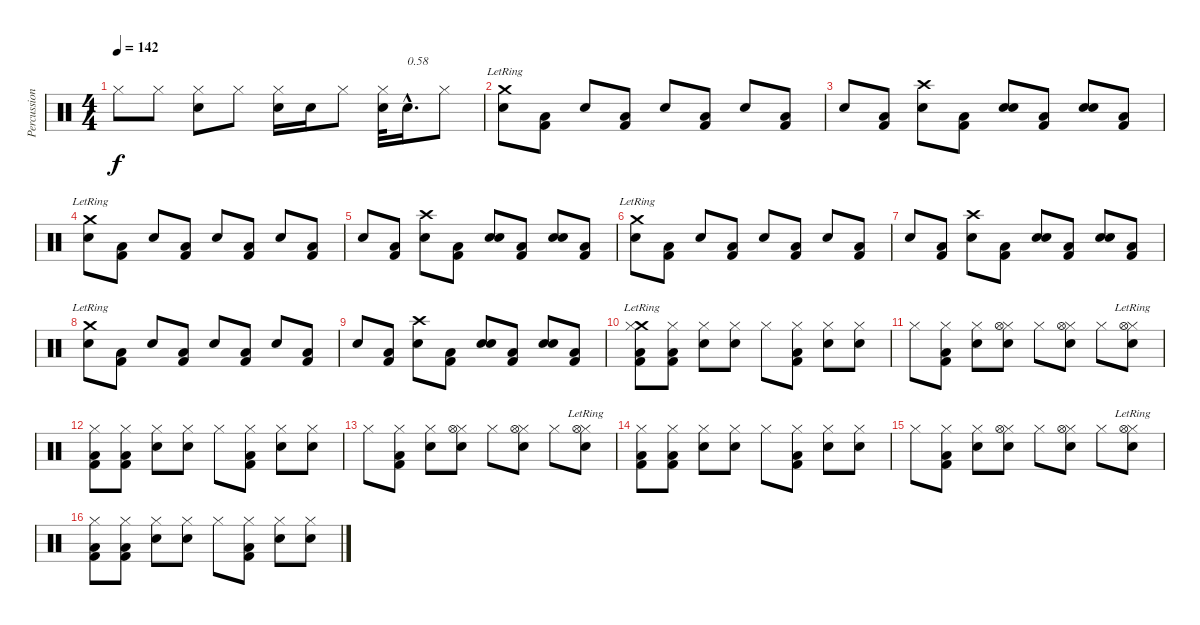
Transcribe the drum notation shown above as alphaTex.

\track ("Percussions" "Percussion") {instrument percussion}
\staff {score}
\articulation defaults
\ts (4 4)
\tempo 142
\clef neutral
\ks c "Hi-Hat (closed)".8{dy f} "Hi-Hat (closed)".8
("Electric Snare (hit)" "Hi-Hat (closed)").8 "Hi-Hat (closed)".8 ("Electric Snare (hit)" "Hi-Hat (closed)").16 "Electric Snare (hit)".16 "Hi-Hat (closed)".8 ("Electric Snare (hit)" "Hi-Hat (closed)").32 "Electric Snare (hit)"{hac}.16{d txt "0.58"} "Hi-Hat (closed)".8 |
("Electric Snare (hit)" "Crash medium (hit)"{lr}).8 ("Kick (hit) 2" "Low Floor Tom (hit)").8 "Electric Snare (hit)".8 ("Kick (hit) 2" "Low Floor Tom (hit)").8 "Electric Snare (hit)".8 ("Kick (hit) 2" "Low Floor Tom (hit)").8 "Electric Snare (hit)".8 ("Kick (hit) 2" "Low Floor Tom (hit)").8 |
"Electric Snare (hit)".8 ("Kick (hit) 2" "Low Floor Tom (hit)").8 ("Electric Snare (hit)" "Crash high (hit)").8 ("Kick (hit) 2" "Low Floor Tom (hit)").8 ("Electric Snare (hit)" "Snare (hit) 2").8 ("Kick (hit) 2" "Low Floor Tom (hit)").8 ("Electric Snare (hit)" "Snare (hit) 2").8 ("Kick (hit) 2" "Low Floor Tom (hit)").8 |
("Electric Snare (hit)" "Crash medium (hit)"{lr}).8 ("Kick (hit) 2" "Low Floor Tom (hit)").8 "Electric Snare (hit)".8 ("Kick (hit) 2" "Low Floor Tom (hit)").8 "Electric Snare (hit)".8 ("Kick (hit) 2" "Low Floor Tom (hit)").8 "Electric Snare (hit)".8 ("Kick (hit) 2" "Low Floor Tom (hit)").8 |
"Electric Snare (hit)".8 ("Kick (hit) 2" "Low Floor Tom (hit)").8 ("Electric Snare (hit)" "Crash high (hit)").8 ("Kick (hit) 2" "Low Floor Tom (hit)").8 ("Electric Snare (hit)" "Snare (hit) 2").8 ("Kick (hit) 2" "Low Floor Tom (hit)").8 ("Electric Snare (hit)" "Snare (hit) 2").8 ("Kick (hit) 2" "Low Floor Tom (hit)").8 |
("Electric Snare (hit)" "Crash medium (hit)"{lr}).8 ("Kick (hit) 2" "Low Floor Tom (hit)").8 "Electric Snare (hit)".8 ("Kick (hit) 2" "Low Floor Tom (hit)").8 "Electric Snare (hit)".8 ("Kick (hit) 2" "Low Floor Tom (hit)").8 "Electric Snare (hit)".8 ("Kick (hit) 2" "Low Floor Tom (hit)").8 |
"Electric Snare (hit)".8 ("Kick (hit) 2" "Low Floor Tom (hit)").8 ("Electric Snare (hit)" "Crash high (hit)").8 ("Kick (hit) 2" "Low Floor Tom (hit)").8 ("Electric Snare (hit)" "Snare (hit) 2").8 ("Kick (hit) 2" "Low Floor Tom (hit)").8 ("Electric Snare (hit)" "Snare (hit) 2").8 ("Kick (hit) 2" "Low Floor Tom (hit)").8 |
("Electric Snare (hit)" "Crash medium (hit)"{lr}).8 ("Kick (hit) 2" "Low Floor Tom (hit)").8 "Electric Snare (hit)".8 ("Kick (hit) 2" "Low Floor Tom (hit)").8 "Electric Snare (hit)".8 ("Kick (hit) 2" "Low Floor Tom (hit)").8 "Electric Snare (hit)".8 ("Kick (hit) 2" "Low Floor Tom (hit)").8 |
"Electric Snare (hit)".8 ("Kick (hit) 2" "Low Floor Tom (hit)").8 ("Electric Snare (hit)" "Crash high (hit)").8 ("Kick (hit) 2" "Low Floor Tom (hit)").8 ("Electric Snare (hit)" "Snare (hit) 2").8 ("Kick (hit) 2" "Low Floor Tom (hit)").8 ("Electric Snare (hit)" "Snare (hit) 2").8 ("Kick (hit) 2" "Low Floor Tom (hit)").8 |
("Kick (hit) 2" "Low Floor Tom (hit)" "Crash medium (hit)"{lr} "Hi-Hat (closed)").8 ("Kick (hit) 2" "Low Floor Tom (hit)" "Hi-Hat (closed)").8 ("Electric Snare (hit)" "Hi-Hat (closed)").8 ("Electric Snare (hit)" "Hi-Hat (closed)").8 "Hi-Hat (closed)".8 ("Kick (hit) 2" "Low Floor Tom (hit)" "Hi-Hat (closed)").8 ("Electric Snare (hit)" "Hi-Hat (closed)").8 ("Electric Snare (hit)" "Hi-Hat (closed)").8 |
"Hi-Hat (closed)".8 ("Kick (hit) 2" "Low Floor Tom (hit)" "Hi-Hat (closed)").8 ("Electric Snare (hit)" "Hi-Hat (closed)").8 ("Electric Snare (hit)" "Hi-Hat (closed)" "Hi-Hat (open)").8 "Hi-Hat (closed)".8 ("Electric Snare (hit)" "Hi-Hat (closed)" "Hi-Hat (open)").8 "Hi-Hat (closed)".8 ("Electric Snare (hit)" "Hi-Hat (closed)" "Hi-Hat (open)"{lr}).8 |
("Kick (hit) 2" "Low Floor Tom (hit)" "Hi-Hat (closed)").8 ("Kick (hit) 2" "Low Floor Tom (hit)" "Hi-Hat (closed)").8 ("Electric Snare (hit)" "Hi-Hat (closed)").8 ("Electric Snare (hit)" "Hi-Hat (closed)").8 "Hi-Hat (closed)".8 ("Kick (hit) 2" "Low Floor Tom (hit)" "Hi-Hat (closed)").8 ("Electric Snare (hit)" "Hi-Hat (closed)").8 ("Electric Snare (hit)" "Hi-Hat (closed)").8 |
"Hi-Hat (closed)".8 ("Kick (hit) 2" "Low Floor Tom (hit)" "Hi-Hat (closed)").8 ("Electric Snare (hit)" "Hi-Hat (closed)").8 ("Electric Snare (hit)" "Hi-Hat (closed)" "Hi-Hat (open)").8 "Hi-Hat (closed)".8 ("Electric Snare (hit)" "Hi-Hat (closed)" "Hi-Hat (open)").8 "Hi-Hat (closed)".8 ("Electric Snare (hit)" "Hi-Hat (closed)" "Hi-Hat (open)"{lr}).8 |
("Kick (hit) 2" "Low Floor Tom (hit)" "Hi-Hat (closed)").8 ("Kick (hit) 2" "Low Floor Tom (hit)" "Hi-Hat (closed)").8 ("Electric Snare (hit)" "Hi-Hat (closed)").8 ("Electric Snare (hit)" "Hi-Hat (closed)").8 "Hi-Hat (closed)".8 ("Kick (hit) 2" "Low Floor Tom (hit)" "Hi-Hat (closed)").8 ("Electric Snare (hit)" "Hi-Hat (closed)").8 ("Electric Snare (hit)" "Hi-Hat (closed)").8 |
"Hi-Hat (closed)".8 ("Kick (hit) 2" "Low Floor Tom (hit)" "Hi-Hat (closed)").8 ("Electric Snare (hit)" "Hi-Hat (closed)").8 ("Electric Snare (hit)" "Hi-Hat (closed)" "Hi-Hat (open)").8 "Hi-Hat (closed)".8 ("Electric Snare (hit)" "Hi-Hat (closed)" "Hi-Hat (open)").8 "Hi-Hat (closed)".8 ("Electric Snare (hit)" "Hi-Hat (closed)" "Hi-Hat (open)"{lr}).8 |
("Kick (hit) 2" "Low Floor Tom (hit)" "Hi-Hat (closed)").8 ("Kick (hit) 2" "Low Floor Tom (hit)" "Hi-Hat (closed)").8 ("Electric Snare (hit)" "Hi-Hat (closed)").8 ("Electric Snare (hit)" "Hi-Hat (closed)").8 "Hi-Hat (closed)".8 ("Kick (hit) 2" "Low Floor Tom (hit)" "Hi-Hat (closed)").8 ("Electric Snare (hit)" "Hi-Hat (closed)").8 ("Electric Snare (hit)" "Hi-Hat (closed)").8
